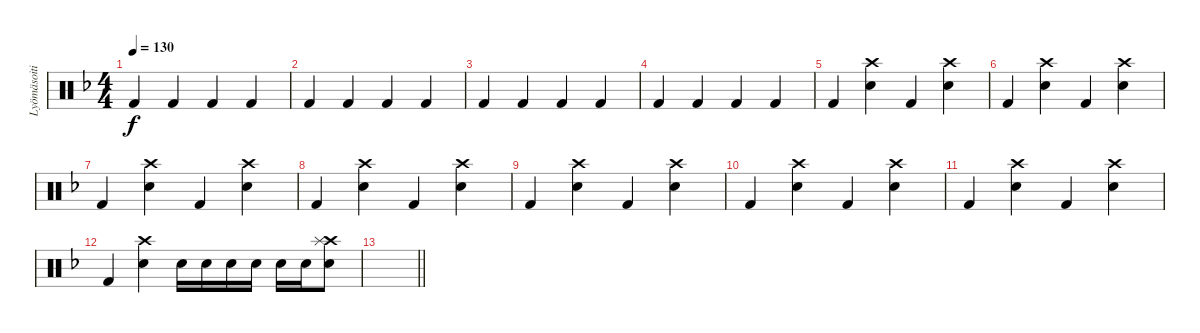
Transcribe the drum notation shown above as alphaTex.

\track ("Lyömäsoitin" "Lyömäsoiti") {instrument percussion}
\staff {score}
\articulation defaults
\ts (4 4)
\tempo 130
\clef neutral
\ks f "Kick (hit) 2".4{dy f} "Kick (hit) 2".4 "Kick (hit) 2".4 "Kick (hit) 2".4
|
"Kick (hit) 2".4 "Kick (hit) 2".4 "Kick (hit) 2".4 "Kick (hit) 2".4 |
"Kick (hit) 2".4 "Kick (hit) 2".4 "Kick (hit) 2".4 "Kick (hit) 2".4 |
"Kick (hit) 2".4 "Kick (hit) 2".4 "Kick (hit) 2".4 "Kick (hit) 2".4 |
"Kick (hit) 2".4 ("Electric Snare (hit)" "Crash high (hit)").4 "Kick (hit) 2".4 ("Electric Snare (hit)" "Crash high (hit)").4 |
"Kick (hit) 2".4 ("Electric Snare (hit)" "Crash high (hit)").4 "Kick (hit) 2".4 ("Electric Snare (hit)" "Crash high (hit)").4 |
"Kick (hit) 2".4 ("Electric Snare (hit)" "Crash high (hit)").4 "Kick (hit) 2".4 ("Electric Snare (hit)" "Crash high (hit)").4 |
"Kick (hit) 2".4 ("Electric Snare (hit)" "Crash high (hit)").4 "Kick (hit) 2".4 ("Electric Snare (hit)" "Crash high (hit)").4 |
"Kick (hit) 2".4 ("Electric Snare (hit)" "Crash high (hit)").4 "Kick (hit) 2".4 ("Electric Snare (hit)" "Crash high (hit)").4 |
"Kick (hit) 2".4 ("Electric Snare (hit)" "Crash high (hit)").4 "Kick (hit) 2".4 ("Electric Snare (hit)" "Crash high (hit)").4 |
"Kick (hit) 2".4 ("Electric Snare (hit)" "Crash high (hit)").4 "Kick (hit) 2".4 ("Electric Snare (hit)" "Crash high (hit)").4 |
"Kick (hit) 2".4 ("Electric Snare (hit)" "Crash high (hit)").4 "Electric Snare (hit)".16 "Electric Snare (hit)".16 "Electric Snare (hit)".16 "Electric Snare (hit)".16 "Electric Snare (hit)".16 "Electric Snare (hit)".16 ("Electric Snare (hit)" "Crash high (hit)" "Splash (hit)").8 |
\barLineRight lightlight
